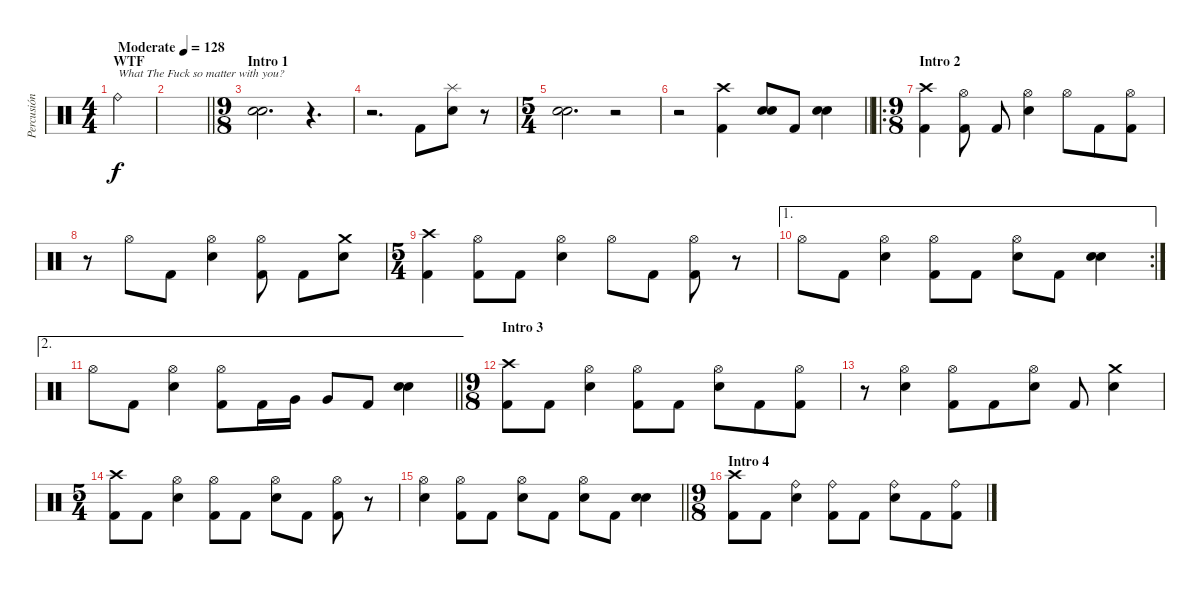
\track ("Percusión" "Percusión") {instrument percussion}
\staff
\articulation defaults
\ts (4 4)
\section ("" "WTF")
\tempo (128 "Moderate")
\clef neutral
\ks c "Ride (bell)".4{txt "What The Fuck so matter with you?" dy f}
|
\barLineRight lightlight
|
\ts (9 8)
\section ("" "Intro 1")
("Electric Snare (hit)" "Snare (hit) 2").2{d} r.4{d} |
r.2{d} "Kick (hit) 2".8 ("Electric Snare (hit)" "Splash (hit)").8 r.8 |
\ts (5 4)
("Electric Snare (hit)" "Snare (hit) 2").2{d} r.2 |
\barLineRight lightlight
r.2 ("Kick (hit) 2" "Crash high (hit)").4 ("Snare (hit) 2" "Electric Snare (hit)").8 "Kick (hit) 2".8 ("Snare (hit) 2" "Electric Snare (hit)").4 |
\ro
\ts (9 8)
\section ("" "Intro 2")
("Kick (hit) 2" "Crash high (hit)").4 ("Kick (hit) 2" "Hi-Hat (open)").8 "Kick (hit) 2".8 ("Electric Snare (hit)" "Hi-Hat (open)").4 "Hi-Hat (open)".8 "Kick (hit) 2".8 ("Kick (hit) 2" "Hi-Hat (open)").8 |
r.8 "Hi-Hat (open)".8 "Kick (hit) 2".8 ("Electric Snare (hit)" "Hi-Hat (open)").4 ("Kick (hit) 2" "Hi-Hat (open)").8 "Kick (hit) 2".8 ("Electric Snare (hit)" "Crash medium (hit)").8 |
\ts (5 4)
("Kick (hit) 2" "Crash high (hit)").4 ("Kick (hit) 2" "Hi-Hat (open)").8 "Kick (hit) 2".8 ("Electric Snare (hit)" "Hi-Hat (open)").4 "Hi-Hat (open)".8 "Kick (hit) 2".8 ("Kick (hit) 2" "Hi-Hat (open)").8 r.8 |
\ae 1
\rc 2 "Hi-Hat (open)".8 "Kick (hit) 2".8
("Electric Snare (hit)" "Hi-Hat (open)").4 ("Kick (hit) 2" "Hi-Hat (open)").8 "Kick (hit) 2".8 ("Electric Snare (hit)" "Hi-Hat (open)").8 "Kick (hit) 2".8 ("Electric Snare (hit)" "Snare (hit) 2").4 |
\ae 2
\barLineRight lightlight "Hi-Hat (open)".8 "Kick (hit) 2".8
("Electric Snare (hit)" "Hi-Hat (open)").4 ("Kick (hit) 2" "Hi-Hat (open)").8 "Kick (hit) 2".16 "Very Low Tom (hit)".16 "Very Low Tom (hit)".8 "Kick (hit) 2".8 ("Electric Snare (hit)" "Snare (hit) 2").4 |
\ts (9 8)
\section ("" "Intro 3")
("Kick (hit) 2" "Crash high (hit)").8 "Kick (hit) 2".8 ("Electric Snare (hit)" "Hi-Hat (open)").4 ("Kick (hit) 2" "Hi-Hat (open)").8 "Kick (hit) 2".8 ("Electric Snare (hit)" "Hi-Hat (open)").8 "Kick (hit) 2".8 ("Kick (hit) 2" "Hi-Hat (open)").8 |
r.8 ("Electric Snare (hit)" "Hi-Hat (open)").4 ("Kick (hit) 2" "Hi-Hat (open)").8 "Kick (hit) 2".8 ("Electric Snare (hit)" "Hi-Hat (open)").8 "Kick (hit) 2".8 ("Electric Snare (hit)" "Crash medium (hit)").4 |
\ts (5 4)
("Kick (hit) 2" "Crash high (hit)").8 "Kick (hit) 2".8 ("Electric Snare (hit)" "Hi-Hat (open)").4 ("Kick (hit) 2" "Hi-Hat (open)").8 "Kick (hit) 2".8 ("Electric Snare (hit)" "Hi-Hat (open)").8 "Kick (hit) 2".8 ("Kick (hit) 2" "Hi-Hat (open)").8 r.8 |
\barLineRight lightlight
("Electric Snare (hit)" "Hi-Hat (open)").4 ("Kick (hit) 2" "Hi-Hat (open)").8 "Kick (hit) 2".8 ("Electric Snare (hit)" "Hi-Hat (open)").8 "Kick (hit) 2".8 ("Electric Snare (hit)" "Hi-Hat (open)").8 "Kick (hit) 2".8 ("Electric Snare (hit)" "Snare (hit) 2").4 |
\ts (9 8)
\section ("" "Intro 4")
("Kick (hit) 2" "Crash high (hit)").8 "Kick (hit) 2".8 ("Electric Snare (hit)" "Ride (bell)").4 ("Kick (hit) 2" "Ride (bell)").8 "Kick (hit) 2".8 ("Electric Snare (hit)" "Ride (bell)").8 "Kick (hit) 2".8 ("Kick (hit) 2" "Ride (bell)").8
